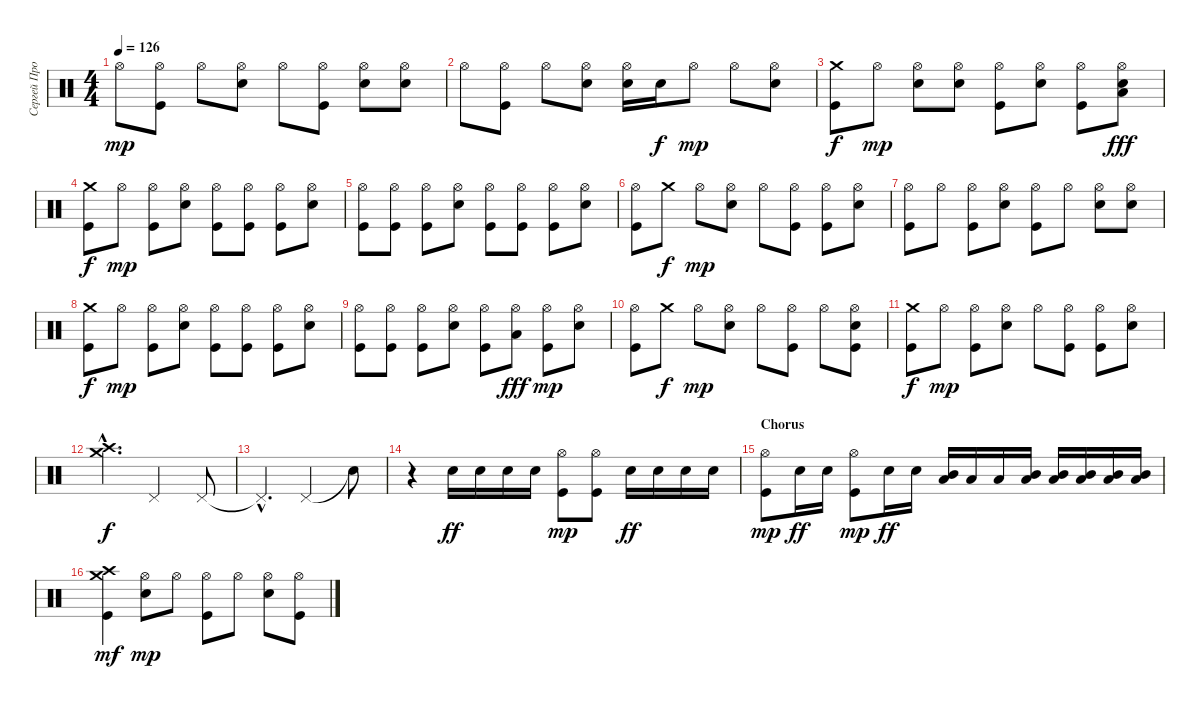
\track ("Сергей Прокофьев (Барабаны)" "Сергей Про") {instrument percussion}
\staff {score}
\articulation defaults
\ts (4 4)
\tempo 126
\clef neutral
\ks c "Hi-Hat (open)".8{dy mp}
("Hi-Hat (open)" "Kick (hit)").8 "Hi-Hat (open)".8 ("Hi-Hat (open)" "Electric Snare (hit)").8 "Hi-Hat (open)".8 ("Hi-Hat (open)" "Kick (hit)").8 ("Hi-Hat (open)" "Electric Snare (hit)").8 ("Hi-Hat (open)" "Electric Snare (hit)").8 |
"Hi-Hat (open)".8 ("Hi-Hat (open)" "Kick (hit)").8 "Hi-Hat (open)".8 ("Hi-Hat (open)" "Electric Snare (hit)").8 ("Hi-Hat (open)" "Electric Snare (hit)").16 "Electric Snare (hit)".16{dy f} "Hi-Hat (open)".8{dy mp} "Hi-Hat (open)".8 ("Hi-Hat (open)" "Electric Snare (hit)").8 |
("Crash medium (hit)" "Kick (hit)").8{dy f} "Hi-Hat (open)".8{dy mp} ("Hi-Hat (open)" "Electric Snare (hit)").8 ("Hi-Hat (open)" "Electric Snare (hit)").8 ("Hi-Hat (open)" "Kick (hit)").8 ("Hi-Hat (open)" "Electric Snare (hit)").8 ("Hi-Hat (open)" "Kick (hit)").8 ("Hi-Hat (open)" "Electric Snare (hit)" "Low Floor Tom (hit)").8{dy fff} |
("Crash medium (hit)" "Kick (hit)").8{dy f} "Hi-Hat (open)".8{dy mp} ("Hi-Hat (open)" "Kick (hit)").8 ("Hi-Hat (open)" "Electric Snare (hit)").8 ("Hi-Hat (open)" "Kick (hit)").8 ("Hi-Hat (open)" "Kick (hit)").8 ("Hi-Hat (open)" "Kick (hit)").8 ("Hi-Hat (open)" "Electric Snare (hit)").8 |
("Hi-Hat (open)" "Kick (hit)").8 ("Hi-Hat (open)" "Kick (hit)").8 ("Hi-Hat (open)" "Kick (hit)").8 ("Hi-Hat (open)" "Electric Snare (hit)").8 ("Hi-Hat (open)" "Kick (hit)").8 ("Hi-Hat (open)" "Kick (hit)").8 ("Hi-Hat (open)" "Kick (hit)").8 ("Hi-Hat (open)" "Electric Snare (hit)").8 |
("Hi-Hat (open)" "Kick (hit)").8 "Crash medium (hit)".8{dy f} "Hi-Hat (open)".8{dy mp} ("Hi-Hat (open)" "Electric Snare (hit)").8 "Hi-Hat (open)".8 ("Hi-Hat (open)" "Kick (hit)").8 ("Hi-Hat (open)" "Kick (hit)").8 ("Hi-Hat (open)" "Electric Snare (hit)").8 |
("Hi-Hat (open)" "Kick (hit)").8 "Hi-Hat (open)".8 ("Hi-Hat (open)" "Kick (hit)").8 ("Hi-Hat (open)" "Electric Snare (hit)").8 ("Hi-Hat (open)" "Kick (hit)").8 "Hi-Hat (open)".8 ("Hi-Hat (open)" "Electric Snare (hit)").8 ("Hi-Hat (open)" "Electric Snare (hit)").8 |
("Crash medium (hit)" "Kick (hit)").8{dy f} "Hi-Hat (open)".8{dy mp} ("Hi-Hat (open)" "Kick (hit)").8 ("Hi-Hat (open)" "Electric Snare (hit)").8 ("Hi-Hat (open)" "Kick (hit)").8 ("Hi-Hat (open)" "Kick (hit)").8 ("Hi-Hat (open)" "Kick (hit)").8 ("Hi-Hat (open)" "Electric Snare (hit)").8 |
("Hi-Hat (open)" "Kick (hit)").8 ("Hi-Hat (open)" "Kick (hit)").8 ("Hi-Hat (open)" "Kick (hit)").8 ("Hi-Hat (open)" "Electric Snare (hit)").8 ("Hi-Hat (open)" "Kick (hit)").8 ("Hi-Hat (open)" "Low Floor Tom (hit)").8{dy fff} ("Hi-Hat (open)" "Kick (hit)").8{dy mp} ("Hi-Hat (open)" "Electric Snare (hit)").8 |
("Hi-Hat (open)" "Kick (hit)").8 "Crash medium (hit)".8{dy f} "Hi-Hat (open)".8{dy mp} ("Hi-Hat (open)" "Electric Snare (hit)").8 "Hi-Hat (open)".8 ("Hi-Hat (open)" "Kick (hit)").8 "Hi-Hat (open)".8 ("Hi-Hat (open)" "Electric Snare (hit)" "Kick (hit)").8 |
("Crash medium (hit)" "Kick (hit)").8{dy f} "Hi-Hat (open)".8{dy mp} ("Hi-Hat (open)" "Kick (hit)").8 ("Hi-Hat (open)" "Electric Snare (hit)").8 "Hi-Hat (open)".8 ("Hi-Hat (open)" "Kick (hit)").8 ("Hi-Hat (open)" "Kick (hit)").8 ("Hi-Hat (open)" "Electric Snare (hit)").8 |
("Crash medium (hit)"{hac} "Crash high (hit)"{hac}).4{d dy f} "Pedal Hi-Hat (hit)".2 "Pedal Hi-Hat (hit)".8 |
"Pedal Hi-Hat (hit)"{hac t}.4{d} "Pedal Hi-Hat (hit)".2 "Snare (hit)"{t}.8 |
r.4 "Electric Snare (hit)".16{dy ff} "Electric Snare (hit)".16 "Electric Snare (hit)".16 "Electric Snare (hit)".16 ("Hi-Hat (open)" "Kick (hit)").8{dy mp} ("Hi-Hat (open)" "Kick (hit)").8 "Electric Snare (hit)".16{dy ff} "Electric Snare (hit)".16 "Electric Snare (hit)".16 "Electric Snare (hit)".16 |
\section ("" "Chorus")
("Hi-Hat (open)" "Kick (hit)").8{dy mp} "Electric Snare (hit)".16{dy ff} "Electric Snare (hit)".16 ("Hi-Hat (open)" "Kick (hit)").8{dy mp} "Electric Snare (hit)".16{dy ff} "Electric Snare (hit)".16 ("Mid Tom (hit)" "Low Floor Tom (hit)").16 "Low Floor Tom (hit)".16 "Low Floor Tom (hit)".16 ("Mid Tom (hit)" "Low Floor Tom (hit)").16 ("Mid Tom (hit)" "Low Floor Tom (hit)").16 ("Mid Tom (hit)" "Low Floor Tom (hit)").16 ("Mid Tom (hit)" "Low Floor Tom (hit)").16 ("Mid Tom (hit)" "Low Floor Tom (hit)").16 |
("Crash high (hit)" "Crash medium (hit)" "Kick (hit)").4{dy mf} ("Hi-Hat (open)" "Electric Snare (hit)").8{dy mp} "Hi-Hat (open)".8 ("Hi-Hat (open)" "Kick (hit)").8 "Hi-Hat (open)".8 ("Hi-Hat (open)" "Electric Snare (hit)").8 ("Hi-Hat (open)" "Kick (hit)").8
